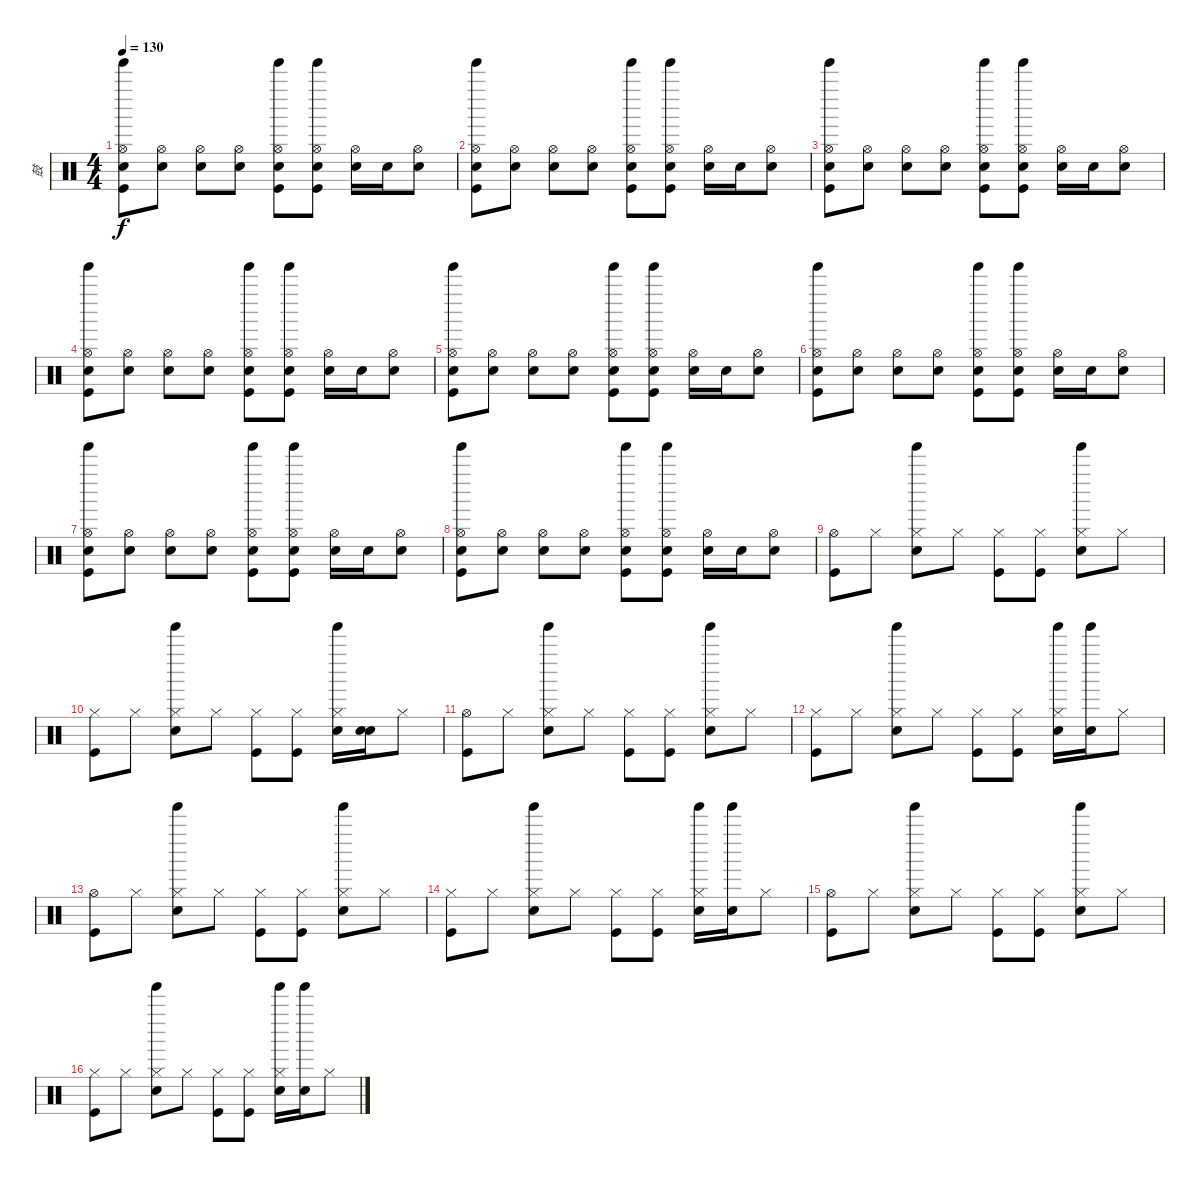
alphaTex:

\track ("鼓" "鼓") {instrument percussion}
\staff {score}
\articulation defaults
\ts (4 4)
\tempo 130
\clef neutral
\ks c
("Hi-Hat (open)" "Tinkle Bell (hit)" "Snare (hit) 2" "Kick (hit)").8{dy f} ("Hi-Hat (open)" "Snare (hit) 2").8 ("Hi-Hat (open)" "Snare (hit) 2").8 ("Hi-Hat (open)" "Snare (hit) 2").8 ("Hi-Hat (open)" "Tinkle Bell (hit)" "Snare (hit) 2" "Kick (hit)").8 ("Hi-Hat (open)" "Tinkle Bell (hit)" "Snare (hit) 2" "Kick (hit)").8 ("Hi-Hat (open)" "Snare (hit) 2").16 "Snare (hit) 2".16 ("Hi-Hat (open)" "Snare (hit) 2").8 |
("Hi-Hat (open)" "Tinkle Bell (hit)" "Snare (hit) 2" "Kick (hit)").8 ("Hi-Hat (open)" "Snare (hit) 2").8 ("Hi-Hat (open)" "Snare (hit) 2").8 ("Hi-Hat (open)" "Snare (hit) 2").8 ("Hi-Hat (open)" "Tinkle Bell (hit)" "Snare (hit) 2" "Kick (hit)").8 ("Hi-Hat (open)" "Tinkle Bell (hit)" "Snare (hit) 2" "Kick (hit)").8 ("Hi-Hat (open)" "Snare (hit) 2").16 "Snare (hit) 2".16 ("Hi-Hat (open)" "Snare (hit) 2").8 |
("Hi-Hat (open)" "Tinkle Bell (hit)" "Snare (hit) 2" "Kick (hit)").8 ("Hi-Hat (open)" "Snare (hit) 2").8 ("Hi-Hat (open)" "Snare (hit) 2").8 ("Hi-Hat (open)" "Snare (hit) 2").8 ("Hi-Hat (open)" "Tinkle Bell (hit)" "Snare (hit) 2" "Kick (hit)").8 ("Hi-Hat (open)" "Tinkle Bell (hit)" "Snare (hit) 2" "Kick (hit)").8 ("Hi-Hat (open)" "Snare (hit) 2").16 "Snare (hit) 2".16 ("Hi-Hat (open)" "Snare (hit) 2").8 |
("Hi-Hat (open)" "Tinkle Bell (hit)" "Snare (hit) 2" "Kick (hit)").8 ("Hi-Hat (open)" "Snare (hit) 2").8 ("Hi-Hat (open)" "Snare (hit) 2").8 ("Hi-Hat (open)" "Snare (hit) 2").8 ("Hi-Hat (open)" "Tinkle Bell (hit)" "Snare (hit) 2" "Kick (hit)").8 ("Hi-Hat (open)" "Tinkle Bell (hit)" "Snare (hit) 2" "Kick (hit)").8 ("Hi-Hat (open)" "Snare (hit) 2").16 "Snare (hit) 2".16 ("Hi-Hat (open)" "Snare (hit) 2").8 |
("Hi-Hat (open)" "Tinkle Bell (hit)" "Snare (hit) 2" "Kick (hit)").8 ("Hi-Hat (open)" "Snare (hit) 2").8 ("Hi-Hat (open)" "Snare (hit) 2").8 ("Hi-Hat (open)" "Snare (hit) 2").8 ("Hi-Hat (open)" "Tinkle Bell (hit)" "Snare (hit) 2" "Kick (hit)").8 ("Hi-Hat (open)" "Tinkle Bell (hit)" "Snare (hit) 2" "Kick (hit)").8 ("Hi-Hat (open)" "Snare (hit) 2").16 "Snare (hit) 2".16 ("Hi-Hat (open)" "Snare (hit) 2").8 |
("Hi-Hat (open)" "Tinkle Bell (hit)" "Snare (hit) 2" "Kick (hit)").8 ("Hi-Hat (open)" "Snare (hit) 2").8 ("Hi-Hat (open)" "Snare (hit) 2").8 ("Hi-Hat (open)" "Snare (hit) 2").8 ("Hi-Hat (open)" "Tinkle Bell (hit)" "Snare (hit) 2" "Kick (hit)").8 ("Hi-Hat (open)" "Tinkle Bell (hit)" "Snare (hit) 2" "Kick (hit)").8 ("Hi-Hat (open)" "Snare (hit) 2").16 "Snare (hit) 2".16 ("Hi-Hat (open)" "Snare (hit) 2").8 |
("Hi-Hat (open)" "Tinkle Bell (hit)" "Snare (hit) 2" "Kick (hit)").8 ("Hi-Hat (open)" "Snare (hit) 2").8 ("Hi-Hat (open)" "Snare (hit) 2").8 ("Hi-Hat (open)" "Snare (hit) 2").8 ("Hi-Hat (open)" "Tinkle Bell (hit)" "Snare (hit) 2" "Kick (hit)").8 ("Hi-Hat (open)" "Tinkle Bell (hit)" "Snare (hit) 2" "Kick (hit)").8 ("Hi-Hat (open)" "Snare (hit) 2").16 "Snare (hit) 2".16 ("Hi-Hat (open)" "Snare (hit) 2").8 |
("Hi-Hat (open)" "Tinkle Bell (hit)" "Snare (hit) 2" "Kick (hit)").8 ("Hi-Hat (open)" "Snare (hit) 2").8 ("Hi-Hat (open)" "Snare (hit) 2").8 ("Hi-Hat (open)" "Snare (hit) 2").8 ("Hi-Hat (open)" "Tinkle Bell (hit)" "Snare (hit) 2" "Kick (hit)").8 ("Hi-Hat (open)" "Tinkle Bell (hit)" "Snare (hit) 2" "Kick (hit)").8 ("Hi-Hat (open)" "Snare (hit) 2").16 "Snare (hit) 2".16 ("Hi-Hat (open)" "Snare (hit) 2").8 |
("Hi-Hat (open)" "Kick (hit)").8 "Hi-Hat (closed)".8 ("Hi-Hat (closed)" "Tinkle Bell (hit)" "Snare (hit) 2").8 "Hi-Hat (closed)".8 ("Hi-Hat (closed)" "Kick (hit)").8 ("Hi-Hat (closed)" "Kick (hit)").8 ("Hi-Hat (closed)" "Tinkle Bell (hit)" "Snare (hit) 2").8 "Hi-Hat (closed)".8 |
("Hi-Hat (closed)" "Kick (hit)").8 "Hi-Hat (closed)".8 ("Hi-Hat (closed)" "Tinkle Bell (hit)" "Snare (hit) 2").8 "Hi-Hat (closed)".8 ("Hi-Hat (closed)" "Kick (hit)").8 ("Hi-Hat (closed)" "Kick (hit)").8 ("Hi-Hat (closed)" "Tinkle Bell (hit)" "Snare (hit) 2").16 ("Snare (hit) 2" "Snare (hit) 2").16 "Hi-Hat (closed)".8 |
("Hi-Hat (open)" "Kick (hit)").8 "Hi-Hat (closed)".8 ("Hi-Hat (closed)" "Tinkle Bell (hit)" "Snare (hit) 2").8 "Hi-Hat (closed)".8 ("Hi-Hat (closed)" "Kick (hit)").8 ("Hi-Hat (closed)" "Kick (hit)").8 ("Hi-Hat (closed)" "Tinkle Bell (hit)" "Snare (hit) 2").8 "Hi-Hat (closed)".8 |
("Hi-Hat (closed)" "Kick (hit)").8 "Hi-Hat (closed)".8 ("Hi-Hat (closed)" "Tinkle Bell (hit)" "Snare (hit) 2").8 "Hi-Hat (closed)".8 ("Hi-Hat (closed)" "Kick (hit)").8 ("Hi-Hat (closed)" "Kick (hit)").8 ("Hi-Hat (closed)" "Tinkle Bell (hit)" "Snare (hit) 2").16 ("Tinkle Bell (hit)" "Snare (hit) 2").16 "Hi-Hat (closed)".8 |
("Hi-Hat (open)" "Kick (hit)").8 "Hi-Hat (closed)".8 ("Hi-Hat (closed)" "Tinkle Bell (hit)" "Snare (hit) 2").8 "Hi-Hat (closed)".8 ("Hi-Hat (closed)" "Kick (hit)").8 ("Hi-Hat (closed)" "Kick (hit)").8 ("Hi-Hat (closed)" "Tinkle Bell (hit)" "Snare (hit) 2").8 "Hi-Hat (closed)".8 |
("Hi-Hat (closed)" "Kick (hit)").8 "Hi-Hat (closed)".8 ("Hi-Hat (closed)" "Tinkle Bell (hit)" "Snare (hit) 2").8 "Hi-Hat (closed)".8 ("Hi-Hat (closed)" "Kick (hit)").8 ("Hi-Hat (closed)" "Kick (hit)").8 ("Hi-Hat (closed)" "Tinkle Bell (hit)" "Snare (hit) 2").16 ("Tinkle Bell (hit)" "Snare (hit) 2").16 "Hi-Hat (closed)".8 |
("Hi-Hat (open)" "Kick (hit)").8 "Hi-Hat (closed)".8 ("Hi-Hat (closed)" "Tinkle Bell (hit)" "Snare (hit) 2").8 "Hi-Hat (closed)".8 ("Hi-Hat (closed)" "Kick (hit)").8 ("Hi-Hat (closed)" "Kick (hit)").8 ("Hi-Hat (closed)" "Tinkle Bell (hit)" "Snare (hit) 2").8 "Hi-Hat (closed)".8 |
("Hi-Hat (closed)" "Kick (hit)").8 "Hi-Hat (closed)".8 ("Hi-Hat (closed)" "Tinkle Bell (hit)" "Snare (hit) 2").8 "Hi-Hat (closed)".8 ("Hi-Hat (closed)" "Kick (hit)").8 ("Hi-Hat (closed)" "Kick (hit)").8 ("Hi-Hat (closed)" "Tinkle Bell (hit)" "Snare (hit) 2").16 ("Tinkle Bell (hit)" "Snare (hit) 2").16 "Hi-Hat (closed)".8
